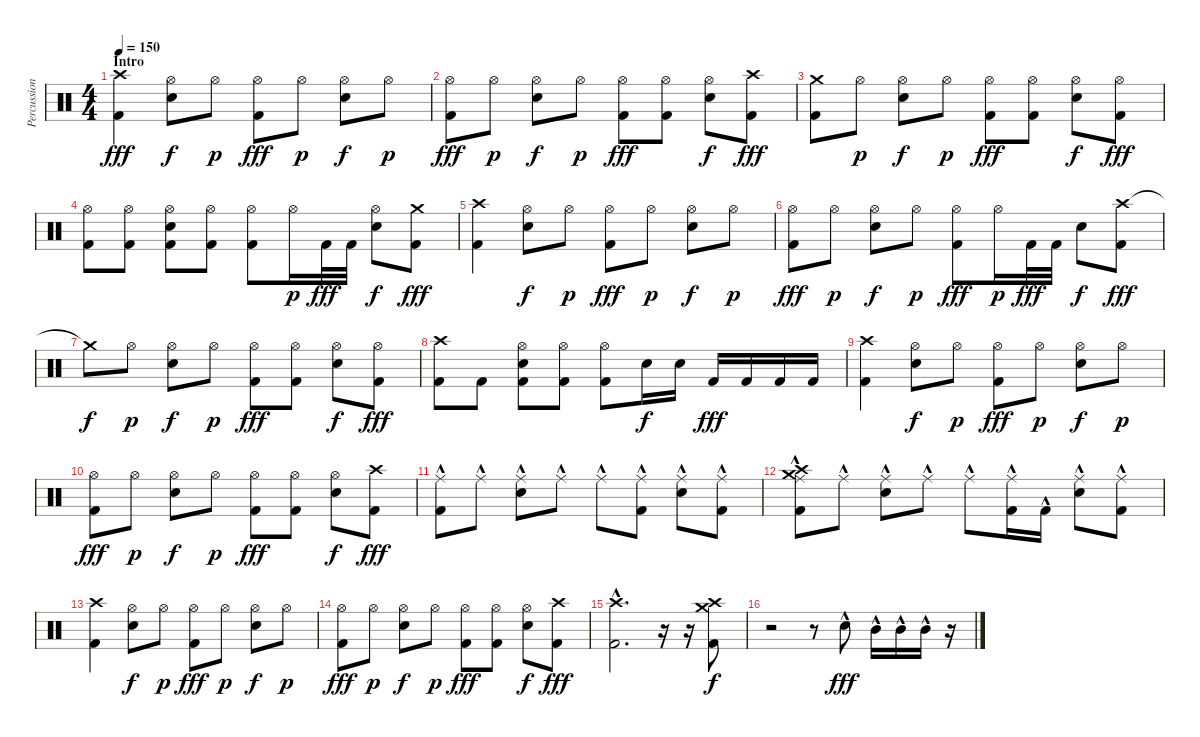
\track ("Percussion" "Percussion") {instrument percussion}
\staff {score}
\articulation defaults
\ts (4 4)
\section ("" "Intro")
\tempo 150
\clef neutral
\ks c
("Crash high (hit)" "Kick (hit) 2").4{dy fff} ("Hi-Hat (open)" "Snare (hit) 2").8{dy f} "Hi-Hat (open)".8{dy p} ("Hi-Hat (open)" "Kick (hit) 2").8{dy fff} "Hi-Hat (open)".8{dy p} ("Hi-Hat (open)" "Snare (hit) 2").8{dy f} "Hi-Hat (open)".8{dy p} |
("Hi-Hat (open)" "Kick (hit) 2").8{dy fff} "Hi-Hat (open)".8{dy p} ("Hi-Hat (open)" "Snare (hit) 2").8{dy f} "Hi-Hat (open)".8{dy p} ("Hi-Hat (open)" "Kick (hit) 2").8{dy fff} ("Hi-Hat (open)" "Kick (hit) 2").8 ("Hi-Hat (open)" "Snare (hit) 2").8{dy f} ("Crash high (hit)" "Kick (hit) 2").8{dy fff} |
("Crash medium (hit)" "Kick (hit) 2").8 "Hi-Hat (open)".8{dy p} ("Hi-Hat (open)" "Snare (hit) 2").8{dy f} "Hi-Hat (open)".8{dy p} ("Hi-Hat (open)" "Kick (hit) 2").8{dy fff} ("Hi-Hat (open)" "Kick (hit) 2").8 ("Hi-Hat (open)" "Snare (hit) 2").8{dy f} ("Hi-Hat (open)" "Kick (hit) 2").8{dy fff} |
("Hi-Hat (open)" "Kick (hit) 2").8 ("Hi-Hat (open)" "Kick (hit) 2").8 ("Hi-Hat (open)" "Snare (hit) 2" "Kick (hit) 2").8 ("Hi-Hat (open)" "Kick (hit) 2").8 ("Hi-Hat (open)" "Kick (hit) 2").8 "Hi-Hat (open)".16{dy p} "Kick (hit) 2".32{dy fff} "Kick (hit) 2".32 ("Hi-Hat (open)" "Snare (hit) 2").8{dy f} ("Crash medium (hit)" "Kick (hit) 2").8{dy fff} |
("Crash high (hit)" "Kick (hit) 2").4 ("Hi-Hat (open)" "Snare (hit) 2").8{dy f} "Hi-Hat (open)".8{dy p} ("Hi-Hat (open)" "Kick (hit) 2").8{dy fff} "Hi-Hat (open)".8{dy p} ("Hi-Hat (open)" "Snare (hit) 2").8{dy f} "Hi-Hat (open)".8{dy p} |
("Hi-Hat (open)" "Kick (hit) 2").8{dy fff} "Hi-Hat (open)".8{dy p} ("Hi-Hat (open)" "Snare (hit) 2").8{dy f} "Hi-Hat (open)".8{dy p} ("Hi-Hat (open)" "Kick (hit) 2").8{dy fff} "Hi-Hat (open)".16{dy p} "Kick (hit) 2".32{dy fff} "Kick (hit) 2".32 "Snare (hit) 2".8{dy f} ("Crash high (hit)" "Kick (hit) 2").8{dy fff} |
"Crash medium (hit)"{t}.8{dy f} "Hi-Hat (open)".8{dy p} ("Hi-Hat (open)" "Snare (hit) 2").8{dy f} "Hi-Hat (open)".8{dy p} ("Hi-Hat (open)" "Kick (hit) 2").8{dy fff} ("Hi-Hat (open)" "Kick (hit) 2").8 ("Hi-Hat (open)" "Snare (hit) 2").8{dy f} ("Hi-Hat (open)" "Kick (hit) 2").8{dy fff} |
("Crash high (hit)" "Kick (hit) 2").8 "Kick (hit) 2".8 ("Hi-Hat (open)" "Snare (hit) 2" "Kick (hit) 2").8 ("Hi-Hat (open)" "Kick (hit) 2").8 ("Hi-Hat (open)" "Kick (hit) 2").8 "Snare (hit) 2".16{dy f} "Snare (hit) 2".16 "Kick (hit) 2".16{dy fff} "Kick (hit) 2".16 "Kick (hit) 2".16 "Kick (hit) 2".16 |
("Crash high (hit)" "Kick (hit) 2").4 ("Hi-Hat (open)" "Snare (hit) 2").8{dy f} "Hi-Hat (open)".8{dy p} ("Hi-Hat (open)" "Kick (hit) 2").8{dy fff} "Hi-Hat (open)".8{dy p} ("Hi-Hat (open)" "Snare (hit) 2").8{dy f} "Hi-Hat (open)".8{dy p} |
("Hi-Hat (open)" "Kick (hit) 2").8{dy fff} "Hi-Hat (open)".8{dy p} ("Hi-Hat (open)" "Snare (hit) 2").8{dy f} "Hi-Hat (open)".8{dy p} ("Hi-Hat (open)" "Kick (hit) 2").8{dy fff} ("Hi-Hat (open)" "Kick (hit) 2").8 ("Hi-Hat (open)" "Snare (hit) 2").8{dy f} ("Crash high (hit)" "Kick (hit) 2").8{dy fff} |
("Ride (middle)"{hac} "Kick (hit) 2"{hac}).8 "Ride (middle)"{hac}.8 ("Ride (middle)"{hac} "Snare (hit) 2"{hac}).8 "Ride (middle)"{hac}.8 "Ride (middle)"{hac}.8 ("Ride (middle)"{hac} "Kick (hit) 2"{hac}).8 ("Ride (middle)"{hac} "Snare (hit) 2"{hac}).8 ("Ride (middle)"{hac} "Kick (hit) 2"{hac}).8 |
("Ride (middle)"{hac} "Crash medium (hit)"{hac} "Kick (hit) 2"{hac} "Crash high (hit)"{hac}).8 "Ride (middle)"{hac}.8 ("Ride (middle)"{hac} "Snare (hit) 2"{hac}).8 "Ride (middle)"{hac}.8 "Ride (middle)"{hac}.8 ("Ride (middle)"{hac} "Kick (hit) 2"{hac}).16 "Kick (hit) 2"{hac}.16 ("Ride (middle)"{hac} "Snare (hit) 2"{hac}).8 ("Ride (middle)"{hac} "Kick (hit) 2"{hac}).8 |
("Crash high (hit)" "Kick (hit) 2").4 ("Hi-Hat (open)" "Snare (hit) 2").8{dy f} "Hi-Hat (open)".8{dy p} ("Hi-Hat (open)" "Kick (hit) 2").8{dy fff} "Hi-Hat (open)".8{dy p} ("Hi-Hat (open)" "Snare (hit) 2").8{dy f} "Hi-Hat (open)".8{dy p} |
("Hi-Hat (open)" "Kick (hit) 2").8{dy fff} "Hi-Hat (open)".8{dy p} ("Hi-Hat (open)" "Snare (hit) 2").8{dy f} "Hi-Hat (open)".8{dy p} ("Hi-Hat (open)" "Kick (hit) 2").8{dy fff} ("Hi-Hat (open)" "Kick (hit) 2").8 ("Hi-Hat (open)" "Snare (hit) 2").8{dy f} ("Crash high (hit)" "Kick (hit) 2").8{dy fff} |
("Crash high (hit)"{hac} "Kick (hit) 2"{hac}).2{d} r.16 r.16 ("Crash medium (hit)" "Crash high (hit)" "Kick (hit) 2").8{dy f} |
r.2 r.8 "Snare (hit) 2"{hac}.8{dy fff} "Mid Tom (hit)"{hac}.16 "Mid Tom (hit)"{hac}.16 "Mid Tom (hit)"{hac}.16 r.16
